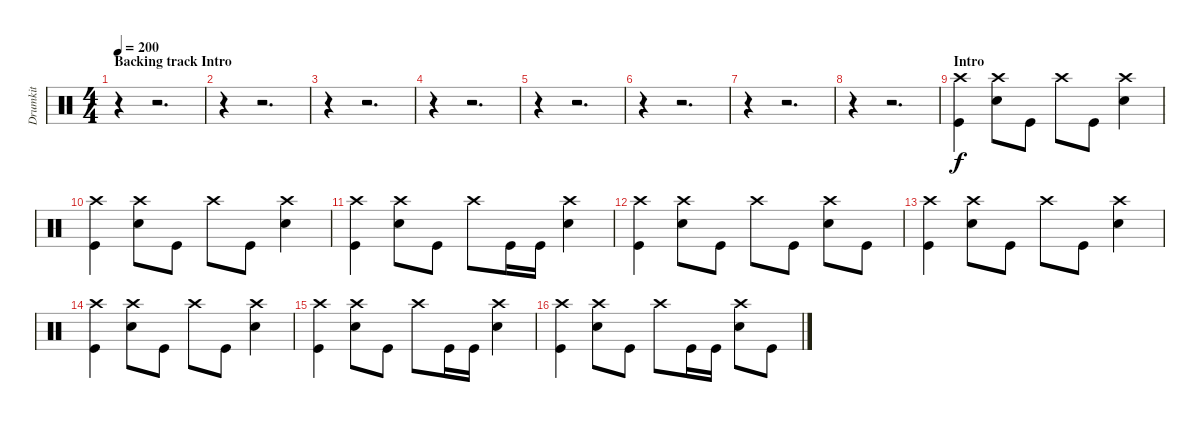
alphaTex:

\track ("Drumkit" "Drumkit") {instrument percussion}
\staff {score}
\articulation defaults
\ts (4 4)
\section ("" "Backing track Intro")
\tempo 200
\clef neutral
\ks c
r.4{dy f} r.2{d} |
r.4 r.2{d} |
r.4 r.2{d} |
r.4 r.2{d} |
r.4 r.2{d} |
r.4 r.2{d} |
r.4 r.2{d} |
r.4 r.2{d} |
\section ("" "Intro")
("Kick (hit)" "Crash high (hit)").4 ("Snare (hit) 2" "Crash high (hit)").8 "Kick (hit)".8 "Crash high (hit)".8 "Kick (hit)".8 ("Snare (hit) 2" "Crash high (hit)").4 |
("Kick (hit)" "Crash high (hit)").4 ("Snare (hit) 2" "Crash high (hit)").8 "Kick (hit)".8 "Crash high (hit)".8 "Kick (hit)".8 ("Snare (hit) 2" "Crash high (hit)").4 |
("Kick (hit)" "Crash high (hit)").4 ("Snare (hit) 2" "Crash high (hit)").8 "Kick (hit)".8 "Crash high (hit)".8 "Kick (hit)".16 "Kick (hit)".16 ("Snare (hit) 2" "Crash high (hit)").4 |
("Kick (hit)" "Crash high (hit)").4 ("Snare (hit) 2" "Crash high (hit)").8 "Kick (hit)".8 "Crash high (hit)".8 "Kick (hit)".8 ("Snare (hit) 2" "Crash high (hit)").8 "Kick (hit)".8 |
("Kick (hit)" "Crash high (hit)").4 ("Snare (hit) 2" "Crash high (hit)").8 "Kick (hit)".8 "Crash high (hit)".8 "Kick (hit)".8 ("Snare (hit) 2" "Crash high (hit)").4 |
("Kick (hit)" "Crash high (hit)").4 ("Snare (hit) 2" "Crash high (hit)").8 "Kick (hit)".8 "Crash high (hit)".8 "Kick (hit)".8 ("Snare (hit) 2" "Crash high (hit)").4 |
("Kick (hit)" "Crash high (hit)").4 ("Snare (hit) 2" "Crash high (hit)").8 "Kick (hit)".8 "Crash high (hit)".8 "Kick (hit)".16 "Kick (hit)".16 ("Snare (hit) 2" "Crash high (hit)").4 |
("Kick (hit)" "Crash high (hit)").4 ("Snare (hit) 2" "Crash high (hit)").8 "Kick (hit)".8 "Crash high (hit)".8 "Kick (hit)".16 "Kick (hit)".16 ("Snare (hit) 2" "Crash high (hit)").8 "Kick (hit)".8
